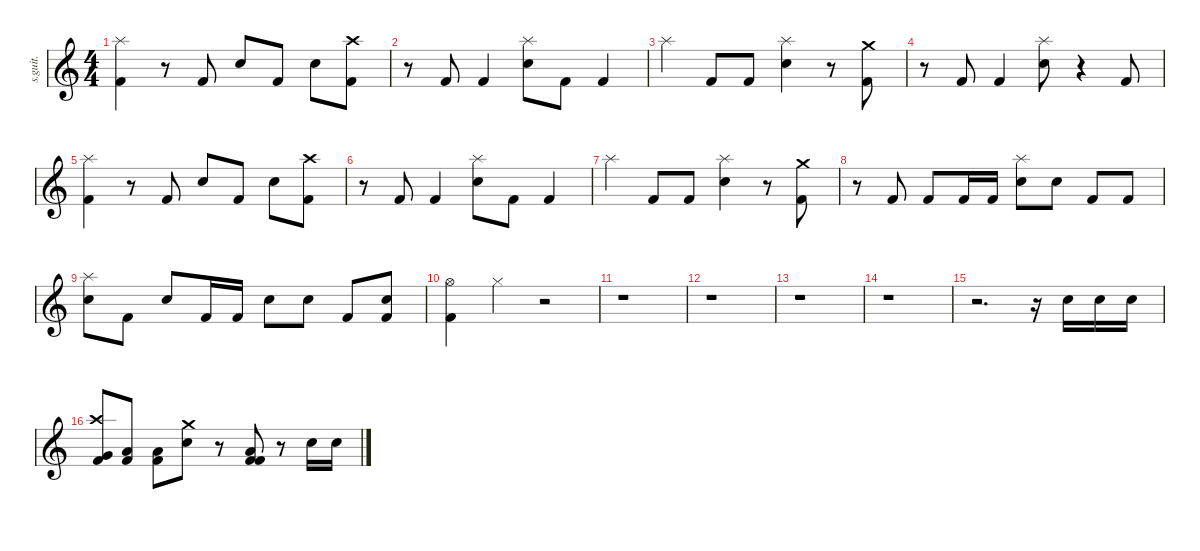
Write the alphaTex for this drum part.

\defaultSystemsLayout 4
\hideDynamics
\bracketExtendMode nobrackets
\track ("Batterie" "s.guit.") {instrument percussion}
\staff {score}
\articulation defaults
\ts (4 4)
\tempo (170 hide)
\clef g2
\ks c
("Splash (hit)" "Kick (hit) 2").4{lyrics (0 "") lyrics (1 "") lyrics (2 "") lyrics (3 "") lyrics (4 "") dy fff} r.8 "Kick (hit) 2".8{lyrics (0 "") lyrics (1 "") lyrics (2 "") lyrics (3 "") lyrics (4 "")} "Electric Snare (hit)".8{lyrics (0 "") lyrics (1 "") lyrics (2 "") lyrics (3 "") lyrics (4 "")} "Kick (hit) 2".8{lyrics (0 "") lyrics (1 "") lyrics (2 "") lyrics (3 "") lyrics (4 "")} "Electric Snare (hit)".8{lyrics (0 "") lyrics (1 "") lyrics (2 "") lyrics (3 "") lyrics (4 "")} ("Crash high (hit)" "Kick (hit) 2").8{lyrics (0 "") lyrics (1 "") lyrics (2 "") lyrics (3 "") lyrics (4 "")} |
r.8 "Kick (hit) 2".8{lyrics (0 "") lyrics (1 "") lyrics (2 "") lyrics (3 "") lyrics (4 "")} "Kick (hit) 2".4{lyrics (0 "") lyrics (1 "") lyrics (2 "") lyrics (3 "") lyrics (4 "")} ("Splash (hit)" "Electric Snare (hit)").8{lyrics (0 "") lyrics (1 "") lyrics (2 "") lyrics (3 "") lyrics (4 "")} "Kick (hit) 2".8{lyrics (0 "") lyrics (1 "") lyrics (2 "") lyrics (3 "") lyrics (4 "")} "Kick (hit) 2".4{lyrics (0 "") lyrics (1 "") lyrics (2 "") lyrics (3 "") lyrics (4 "")} |
"Splash (hit)".4{lyrics (0 "") lyrics (1 "") lyrics (2 "") lyrics (3 "") lyrics (4 "")} "Kick (hit) 2".8{lyrics (0 "") lyrics (1 "") lyrics (2 "") lyrics (3 "") lyrics (4 "")} "Kick (hit) 2".8{lyrics (0 "") lyrics (1 "") lyrics (2 "") lyrics (3 "") lyrics (4 "")} ("Splash (hit)" "Electric Snare (hit)").4{lyrics (0 "") lyrics (1 "") lyrics (2 "") lyrics (3 "") lyrics (4 "")} r.8 ("Crash medium (hit)" "Kick (hit) 2").8{lyrics (0 "") lyrics (1 "") lyrics (2 "") lyrics (3 "") lyrics (4 "")} |
r.8 "Kick (hit) 2".8{lyrics (0 "") lyrics (1 "") lyrics (2 "") lyrics (3 "") lyrics (4 "")} "Kick (hit) 2".4{lyrics (0 "") lyrics (1 "") lyrics (2 "") lyrics (3 "") lyrics (4 "")} ("Splash (hit)" "Electric Snare (hit)").8{lyrics (0 "") lyrics (1 "") lyrics (2 "") lyrics (3 "") lyrics (4 "")} r.4 "Kick (hit) 2".8{lyrics (0 "") lyrics (1 "") lyrics (2 "") lyrics (3 "") lyrics (4 "")} |
("Splash (hit)" "Kick (hit) 2").4{lyrics (0 "") lyrics (1 "") lyrics (2 "") lyrics (3 "") lyrics (4 "")} r.8 "Kick (hit) 2".8{lyrics (0 "") lyrics (1 "") lyrics (2 "") lyrics (3 "") lyrics (4 "")} "Electric Snare (hit)".8{lyrics (0 "") lyrics (1 "") lyrics (2 "") lyrics (3 "") lyrics (4 "")} "Kick (hit) 2".8{lyrics (0 "") lyrics (1 "") lyrics (2 "") lyrics (3 "") lyrics (4 "")} "Electric Snare (hit)".8{lyrics (0 "") lyrics (1 "") lyrics (2 "") lyrics (3 "") lyrics (4 "")} ("Crash high (hit)" "Kick (hit) 2").8{lyrics (0 "") lyrics (1 "") lyrics (2 "") lyrics (3 "") lyrics (4 "")} |
r.8 "Kick (hit) 2".8{lyrics (0 "") lyrics (1 "") lyrics (2 "") lyrics (3 "") lyrics (4 "")} "Kick (hit) 2".4{lyrics (0 "") lyrics (1 "") lyrics (2 "") lyrics (3 "") lyrics (4 "")} ("Splash (hit)" "Electric Snare (hit)").8{lyrics (0 "") lyrics (1 "") lyrics (2 "") lyrics (3 "") lyrics (4 "")} "Kick (hit) 2".8{lyrics (0 "") lyrics (1 "") lyrics (2 "") lyrics (3 "") lyrics (4 "")} "Kick (hit) 2".4{lyrics (0 "") lyrics (1 "") lyrics (2 "") lyrics (3 "") lyrics (4 "")} |
"Splash (hit)".4{lyrics (0 "") lyrics (1 "") lyrics (2 "") lyrics (3 "") lyrics (4 "")} "Kick (hit) 2".8{lyrics (0 "") lyrics (1 "") lyrics (2 "") lyrics (3 "") lyrics (4 "")} "Kick (hit) 2".8{lyrics (0 "") lyrics (1 "") lyrics (2 "") lyrics (3 "") lyrics (4 "")} ("Splash (hit)" "Electric Snare (hit)").4{lyrics (0 "") lyrics (1 "") lyrics (2 "") lyrics (3 "") lyrics (4 "")} r.8 ("Crash medium (hit)" "Kick (hit) 2").8{lyrics (0 "") lyrics (1 "") lyrics (2 "") lyrics (3 "") lyrics (4 "")} |
r.8 "Kick (hit) 2".8{lyrics (0 "") lyrics (1 "") lyrics (2 "") lyrics (3 "") lyrics (4 "")} "Kick (hit) 2".8{lyrics (0 "") lyrics (1 "") lyrics (2 "") lyrics (3 "") lyrics (4 "")} "Kick (hit) 2".16{lyrics (0 "") lyrics (1 "") lyrics (2 "") lyrics (3 "") lyrics (4 "")} "Kick (hit) 2".16{lyrics (0 "") lyrics (1 "") lyrics (2 "") lyrics (3 "") lyrics (4 "")} ("Splash (hit)" "Electric Snare (hit)").8{lyrics (0 "") lyrics (1 "") lyrics (2 "") lyrics (3 "") lyrics (4 "")} "Electric Snare (hit)".8{lyrics (0 "") lyrics (1 "") lyrics (2 "") lyrics (3 "") lyrics (4 "")} "Kick (hit) 2".8{lyrics (0 "") lyrics (1 "") lyrics (2 "") lyrics (3 "") lyrics (4 "")} "Kick (hit) 2".8{lyrics (0 "") lyrics (1 "") lyrics (2 "") lyrics (3 "") lyrics (4 "")} |
("Splash (hit)" "Electric Snare (hit)").8{lyrics (0 "") lyrics (1 "") lyrics (2 "") lyrics (3 "") lyrics (4 "")} "Kick (hit) 2".8{lyrics (0 "") lyrics (1 "") lyrics (2 "") lyrics (3 "") lyrics (4 "")} "Electric Snare (hit)".8{lyrics (0 "") lyrics (1 "") lyrics (2 "") lyrics (3 "") lyrics (4 "")} "Kick (hit) 2".16{lyrics (0 "") lyrics (1 "") lyrics (2 "") lyrics (3 "") lyrics (4 "")} "Kick (hit) 2".16{lyrics (0 "") lyrics (1 "") lyrics (2 "") lyrics (3 "") lyrics (4 "")} "Electric Snare (hit)".8{lyrics (0 "") lyrics (1 "") lyrics (2 "") lyrics (3 "") lyrics (4 "")} "Electric Snare (hit)".8{lyrics (0 "") lyrics (1 "") lyrics (2 "") lyrics (3 "") lyrics (4 "")} "Kick (hit) 2".8{lyrics (0 "") lyrics (1 "") lyrics (2 "") lyrics (3 "") lyrics (4 "")} ("Electric Snare (hit)" "Kick (hit) 2").8{lyrics (0 "") lyrics (1 "") lyrics (2 "") lyrics (3 "") lyrics (4 "")} |
("Hi-Hat (open)" "Kick (hit) 2").4{lyrics (0 "") lyrics (1 "") lyrics (2 "") lyrics (3 "") lyrics (4 "")} "Hi-Hat (closed)".4{lyrics (0 "") lyrics (1 "") lyrics (2 "") lyrics (3 "") lyrics (4 "") dy ppp} r.2 |
r.1 |
r.1 |
r.1 |
r.1 |
r.2{d} r.16 "Electric Snare (hit)".16{lyrics (0 "") lyrics (1 "") lyrics (2 "") lyrics (3 "") lyrics (4 "") tp 0 dy mp} "Electric Snare (hit)".16{lyrics (0 "") lyrics (1 "") lyrics (2 "") lyrics (3 "") lyrics (4 "") tp 0} "Electric Snare (hit)".16{lyrics (0 "") lyrics (1 "") lyrics (2 "") lyrics (3 "") lyrics (4 "") tp 0} |
("Crash high (hit)" "Very Low Tom (hit)" "Kick (hit) 2").8{lyrics (0 "") lyrics (1 "") lyrics (2 "") lyrics (3 "") lyrics (4 "") dy fff} ("Low Floor Tom (hit)" "Kick (hit) 2").8{lyrics (0 "") lyrics (1 "") lyrics (2 "") lyrics (3 "") lyrics (4 "")} ("Low Floor Tom (hit)" "Kick (hit) 2").8{lyrics (0 "") lyrics (1 "") lyrics (2 "") lyrics (3 "") lyrics (4 "")} ("Crash medium (hit)" "Electric Snare (hit)").8{lyrics (0 "") lyrics (1 "") lyrics (2 "") lyrics (3 "") lyrics (4 "")} r.8 ("Kick (hit) 2" "Kick (hit) 2" "Low Floor Tom (hit)").8{lyrics (0 "") lyrics (1 "") lyrics (2 "") lyrics (3 "") lyrics (4 "")} r.8 "Electric Snare (hit)".16{lyrics (0 "") lyrics (1 "") lyrics (2 "") lyrics (3 "") lyrics (4 "") dy mp} "Electric Snare (hit)".16{lyrics (0 "") lyrics (1 "") lyrics (2 "") lyrics (3 "") lyrics (4 "")}
